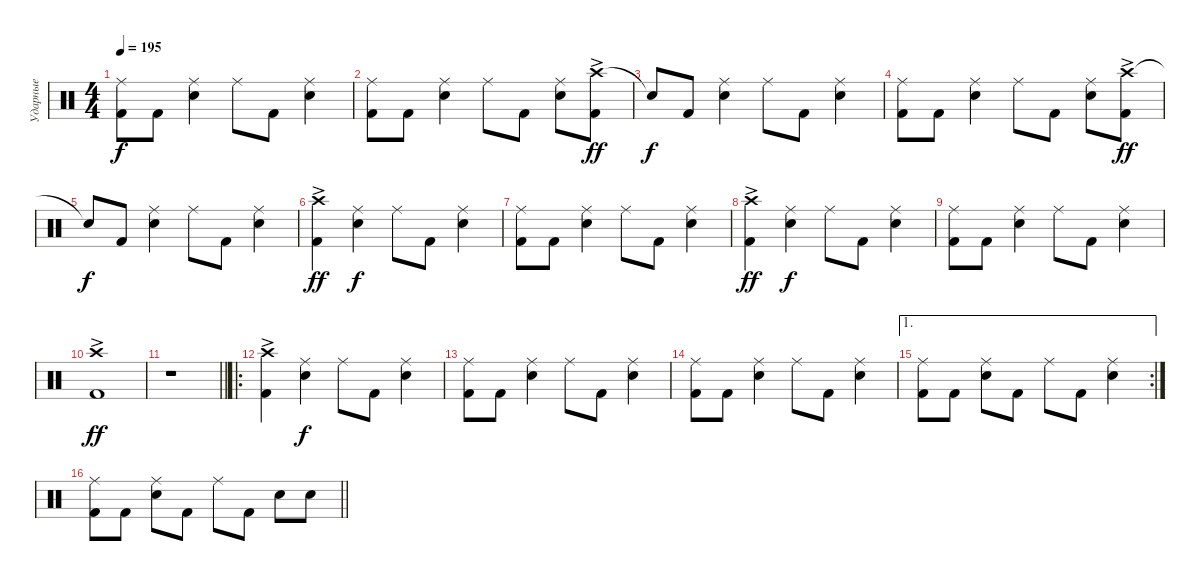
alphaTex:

\track ("Ударные" "Ударные") {instrument percussion}
\staff {score}
\articulation defaults
\ts (4 4)
\tempo 195
\clef neutral
\ks c
("Ride (middle)" "Kick (hit) 2").8{dy f} "Kick (hit) 2".8 ("Ride (middle)" "Snare (hit) 2").4 "Ride (middle)".8 "Kick (hit) 2".8 ("Ride (middle)" "Snare (hit) 2").4 |
("Ride (middle)" "Kick (hit) 2").8 "Kick (hit) 2".8 ("Ride (middle)" "Snare (hit) 2").4 "Ride (middle)".8 "Kick (hit) 2".8 ("Ride (middle)" "Snare (hit) 2").8 ("Crash high (hit)"{ac} "Kick (hit) 2").8{dy ff} |
"Snare (hit)"{t}.8{dy f} "Kick (hit) 2".8 ("Ride (middle)" "Snare (hit) 2").4 "Ride (middle)".8 "Kick (hit) 2".8 ("Ride (middle)" "Snare (hit) 2").4 |
("Ride (middle)" "Kick (hit) 2").8 "Kick (hit) 2".8 ("Ride (middle)" "Snare (hit) 2").4 "Ride (middle)".8 "Kick (hit) 2".8 ("Ride (middle)" "Snare (hit) 2").8 ("Crash high (hit)"{ac} "Kick (hit) 2").8{dy ff} |
"Snare (hit)"{t}.8{dy f} "Kick (hit) 2".8 ("Ride (middle)" "Snare (hit) 2").4 "Ride (middle)".8 "Kick (hit) 2".8 ("Ride (middle)" "Snare (hit) 2").4 |
("Crash high (hit)"{ac} "Kick (hit) 2").4{dy ff} ("Ride (middle)" "Snare (hit) 2").4{dy f} "Ride (middle)".8 "Kick (hit) 2".8 ("Ride (middle)" "Snare (hit) 2").4 |
("Ride (middle)" "Kick (hit) 2").8 "Kick (hit) 2".8 ("Ride (middle)" "Snare (hit) 2").4 "Ride (middle)".8 "Kick (hit) 2".8 ("Ride (middle)" "Snare (hit) 2").4 |
("Crash high (hit)"{ac} "Kick (hit) 2").4{dy ff} ("Ride (middle)" "Snare (hit) 2").4{dy f} "Ride (middle)".8 "Kick (hit) 2".8 ("Ride (middle)" "Snare (hit) 2").4 |
("Ride (middle)" "Kick (hit) 2").8 "Kick (hit) 2".8 ("Ride (middle)" "Snare (hit) 2").4 "Ride (middle)".8 "Kick (hit) 2".8 ("Ride (middle)" "Snare (hit) 2").4 |
("Crash high (hit)"{ac} "Kick (hit) 2"{ac}).1{dy ff} |
\barLineRight lightlight
r.1 |
\ro
("Crash high (hit)"{ac} "Kick (hit) 2").4 ("Ride (middle)" "Snare (hit) 2").4{dy f} "Ride (middle)".8 "Kick (hit) 2".8 ("Ride (middle)" "Snare (hit) 2").4 |
("Ride (middle)" "Kick (hit) 2").8 "Kick (hit) 2".8 ("Ride (middle)" "Snare (hit) 2").4 "Ride (middle)".8 "Kick (hit) 2".8 ("Ride (middle)" "Snare (hit) 2").4 |
("Ride (middle)" "Kick (hit) 2").8 "Kick (hit) 2".8 ("Ride (middle)" "Snare (hit) 2").4 "Ride (middle)".8 "Kick (hit) 2".8 ("Ride (middle)" "Snare (hit) 2").4 |
\ae 1
\rc 2
("Ride (middle)" "Kick (hit) 2").8 "Kick (hit) 2".8 ("Ride (middle)" "Snare (hit) 2").8 "Kick (hit) 2".8 "Ride (middle)".8 "Kick (hit) 2".8 ("Ride (middle)" "Snare (hit) 2").4 |
\barLineRight lightlight
("Ride (middle)" "Kick (hit) 2").8 "Kick (hit) 2".8 ("Ride (middle)" "Snare (hit) 2").8 "Kick (hit) 2".8 "Ride (middle)".8 "Kick (hit) 2".8 "Snare (hit) 2".8 "Snare (hit) 2".8
